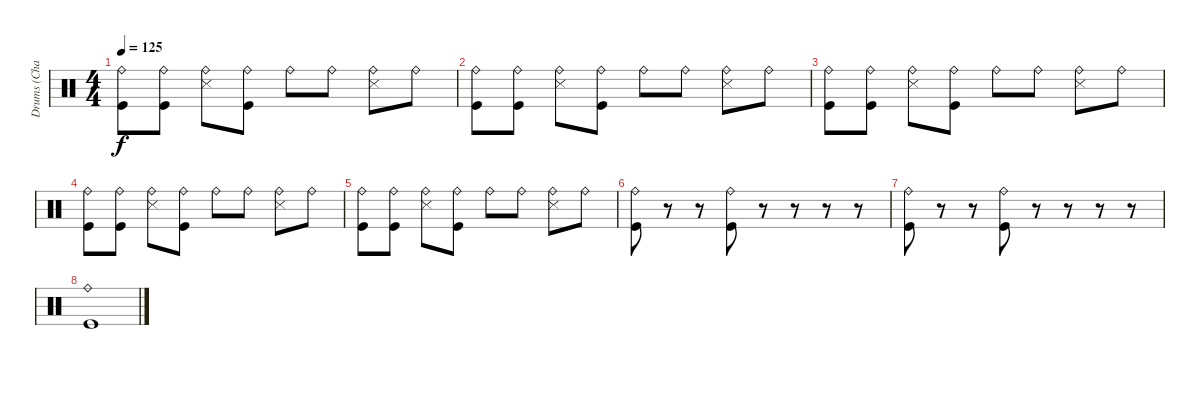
\track ("Drums (Chad Smith)" "Drums (Cha") {instrument percussion}
\staff {score}
\articulation defaults
\ts (4 4)
\tempo 125
\clef neutral
\ks c
("Ride (bell)" "Kick (hit)").8{dy f} ("Ride (bell)" "Kick (hit)").8 ("Ride (bell)" "Snare (side stick) 3").8 ("Ride (bell)" "Kick (hit)").8 "Ride (bell)".8 "Ride (bell)".8 ("Ride (bell)" "Snare (side stick) 3").8 "Ride (bell)".8 |
("Ride (bell)" "Kick (hit)").8 ("Ride (bell)" "Kick (hit)").8 ("Ride (bell)" "Snare (side stick) 3").8 ("Ride (bell)" "Kick (hit)").8 "Ride (bell)".8 "Ride (bell)".8 ("Ride (bell)" "Snare (side stick) 3").8 "Ride (bell)".8 |
("Ride (bell)" "Kick (hit)").8 ("Ride (bell)" "Kick (hit)").8 ("Ride (bell)" "Snare (side stick) 3").8 ("Ride (bell)" "Kick (hit)").8 "Ride (bell)".8 "Ride (bell)".8 ("Ride (bell)" "Snare (side stick) 3").8 "Ride (bell)".8 |
("Ride (bell)" "Kick (hit)").8 ("Ride (bell)" "Kick (hit)").8 ("Ride (bell)" "Snare (side stick) 3").8 ("Ride (bell)" "Kick (hit)").8 "Ride (bell)".8 "Ride (bell)".8 ("Ride (bell)" "Snare (side stick) 3").8 "Ride (bell)".8 |
("Ride (bell)" "Kick (hit)").8 ("Ride (bell)" "Kick (hit)").8 ("Ride (bell)" "Snare (side stick) 3").8 ("Ride (bell)" "Kick (hit)").8 "Ride (bell)".8 "Ride (bell)".8 ("Ride (bell)" "Snare (side stick) 3").8 "Ride (bell)".8 |
("Ride (bell)" "Kick (hit)").8 r.8 r.8 ("Ride (bell)" "Kick (hit)").8 r.8 r.8 r.8 r.8 |
("Ride (bell)" "Kick (hit)").8 r.8 r.8 ("Ride (bell)" "Kick (hit)").8 r.8 r.8 r.8 r.8 |
("Ride (bell)" "Kick (hit)").1
